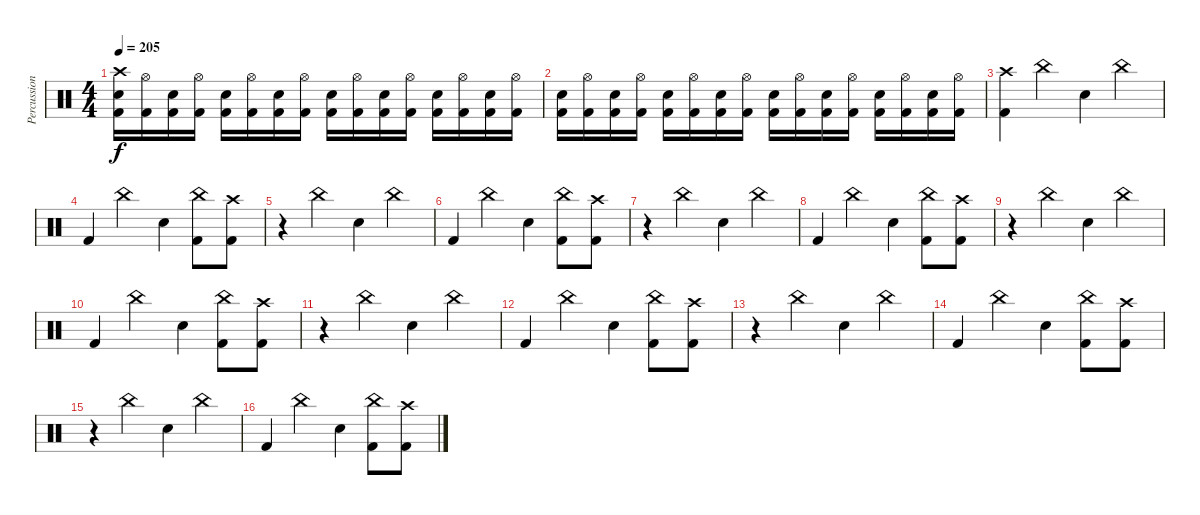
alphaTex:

\track ("Percussion" "Percussion") {instrument percussion}
\staff {score}
\articulation defaults
\ts (4 4)
\tempo 205
\clef neutral
\ks c
("Crash high (hit)" "Electric Snare (hit)" "Kick (hit) 2").16{dy f} ("Hi-Hat (open)" "Kick (hit) 2").16 ("Electric Snare (hit)" "Kick (hit) 2").16 ("Hi-Hat (open)" "Kick (hit) 2").16 ("Electric Snare (hit)" "Kick (hit) 2").16 ("Hi-Hat (open)" "Kick (hit) 2").16 ("Electric Snare (hit)" "Kick (hit) 2").16 ("Hi-Hat (open)" "Kick (hit) 2").16 ("Electric Snare (hit)" "Kick (hit) 2").16 ("Hi-Hat (open)" "Kick (hit) 2").16 ("Electric Snare (hit)" "Kick (hit) 2").16 ("Hi-Hat (open)" "Kick (hit) 2").16 ("Electric Snare (hit)" "Kick (hit) 2").16 ("Hi-Hat (open)" "Kick (hit) 2").16 ("Electric Snare (hit)" "Kick (hit) 2").16 ("Hi-Hat (open)" "Kick (hit) 2").16 |
("Electric Snare (hit)" "Kick (hit) 2").16 ("Hi-Hat (open)" "Kick (hit) 2").16 ("Electric Snare (hit)" "Kick (hit) 2").16 ("Hi-Hat (open)" "Kick (hit) 2").16 ("Electric Snare (hit)" "Kick (hit) 2").16 ("Hi-Hat (open)" "Kick (hit) 2").16 ("Electric Snare (hit)" "Kick (hit) 2").16 ("Hi-Hat (open)" "Kick (hit) 2").16 ("Electric Snare (hit)" "Kick (hit) 2").16 ("Hi-Hat (open)" "Kick (hit) 2").16 ("Electric Snare (hit)" "Kick (hit) 2").16 ("Hi-Hat (open)" "Kick (hit) 2").16 ("Electric Snare (hit)" "Kick (hit) 2").16 ("Hi-Hat (open)" "Kick (hit) 2").16 ("Electric Snare (hit)" "Kick (hit) 2").16 ("Hi-Hat (open)" "Kick (hit) 2").16 |
("Crash high (hit)" "Kick (hit) 2").4 "China (hit)".4 "Electric Snare (hit)".4 "China (hit)".4 |
"Kick (hit) 2".4 "China (hit)".4 "Electric Snare (hit)".4 ("China (hit)" "Kick (hit) 2").8 ("Crash high (hit)" "Kick (hit) 2").8 |
r.4 "China (hit)".4 "Electric Snare (hit)".4 "China (hit)".4 |
"Kick (hit) 2".4 "China (hit)".4 "Electric Snare (hit)".4 ("China (hit)" "Kick (hit) 2").8 ("Crash high (hit)" "Kick (hit) 2").8 |
r.4 "China (hit)".4 "Electric Snare (hit)".4 "China (hit)".4 |
"Kick (hit) 2".4 "China (hit)".4 "Electric Snare (hit)".4 ("China (hit)" "Kick (hit) 2").8 ("Crash high (hit)" "Kick (hit) 2").8 |
r.4 "China (hit)".4 "Electric Snare (hit)".4 "China (hit)".4 |
"Kick (hit) 2".4 "China (hit)".4 "Electric Snare (hit)".4 ("China (hit)" "Kick (hit) 2").8 ("Crash high (hit)" "Kick (hit) 2").8 |
r.4 "China (hit)".4 "Electric Snare (hit)".4 "China (hit)".4 |
"Kick (hit) 2".4 "China (hit)".4 "Electric Snare (hit)".4 ("China (hit)" "Kick (hit) 2").8 ("Crash high (hit)" "Kick (hit) 2").8 |
r.4 "China (hit)".4 "Electric Snare (hit)".4 "China (hit)".4 |
"Kick (hit) 2".4 "China (hit)".4 "Electric Snare (hit)".4 ("China (hit)" "Kick (hit) 2").8 ("Crash high (hit)" "Kick (hit) 2").8 |
r.4 "China (hit)".4 "Electric Snare (hit)".4 "China (hit)".4 |
"Kick (hit) 2".4 "China (hit)".4 "Electric Snare (hit)".4 ("China (hit)" "Kick (hit) 2").8 ("Crash high (hit)" "Kick (hit) 2").8
